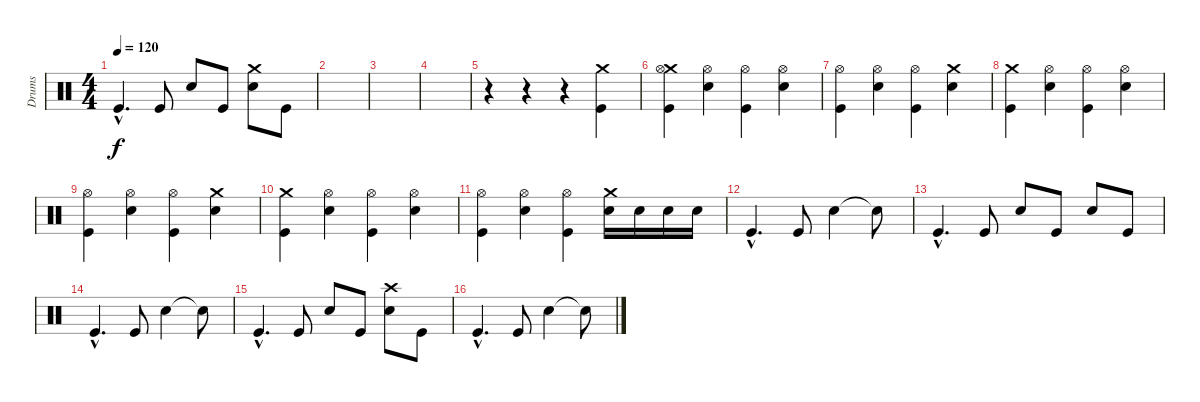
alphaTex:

\track ("Drums" "Drums") {instrument percussion}
\staff {score}
\articulation defaults
\ts (4 4)
\tempo 120
\clef neutral
\ks c "Kick (hit)"{hac}.4{d dy f} "Kick (hit)".8 "Electric Snare (hit)".8 "Kick (hit)".8
("Electric Snare (hit)" "Crash medium (hit)").8 "Kick (hit)".8 |
|
|
|
r.4 r.4 r.4 ("Crash medium (hit)" "Kick (hit)").4 |
("Crash medium (hit)" "Kick (hit)" "Hi-Hat (open)").4 ("Electric Snare (hit)" "Hi-Hat (open)").4 ("Kick (hit)" "Hi-Hat (open)").4 ("Electric Snare (hit)" "Hi-Hat (open)").4 |
("Kick (hit)" "Hi-Hat (open)").4 ("Electric Snare (hit)" "Hi-Hat (open)").4 ("Kick (hit)" "Hi-Hat (open)").4 ("Electric Snare (hit)" "Crash medium (hit)").4 |
("Crash medium (hit)" "Kick (hit)").4 ("Electric Snare (hit)" "Hi-Hat (open)").4 ("Kick (hit)" "Hi-Hat (open)").4 ("Electric Snare (hit)" "Hi-Hat (open)").4 |
("Kick (hit)" "Hi-Hat (open)").4 ("Electric Snare (hit)" "Hi-Hat (open)").4 ("Kick (hit)" "Hi-Hat (open)").4 ("Electric Snare (hit)" "Crash medium (hit)").4 |
("Crash medium (hit)" "Kick (hit)").4 ("Electric Snare (hit)" "Hi-Hat (open)").4 ("Kick (hit)" "Hi-Hat (open)").4 ("Electric Snare (hit)" "Hi-Hat (open)").4 |
("Kick (hit)" "Hi-Hat (open)").4 ("Electric Snare (hit)" "Hi-Hat (open)").4 ("Kick (hit)" "Hi-Hat (open)").4 ("Electric Snare (hit)" "Crash medium (hit)").16 "Electric Snare (hit)".16 "Electric Snare (hit)".16 "Electric Snare (hit)".16 |
"Kick (hit)"{hac}.4{d} "Kick (hit)".8 "Electric Snare (hit)".4 "Snare (hit)"{t}.8 |
"Kick (hit)"{hac}.4{d} "Kick (hit)".8 "Electric Snare (hit)".8 "Kick (hit)".8 "Electric Snare (hit)".8 "Kick (hit)".8 |
"Kick (hit)"{hac}.4{d} "Kick (hit)".8 "Electric Snare (hit)".4 "Snare (hit)"{t}.8 |
"Kick (hit)"{hac}.4{d} "Kick (hit)".8 "Electric Snare (hit)".8 "Kick (hit)".8 ("Electric Snare (hit)" "Crash high (hit)").8 "Kick (hit)".8 |
"Kick (hit)"{hac}.4{d} "Kick (hit)".8 "Electric Snare (hit)".4 "Snare (hit)"{t}.8
